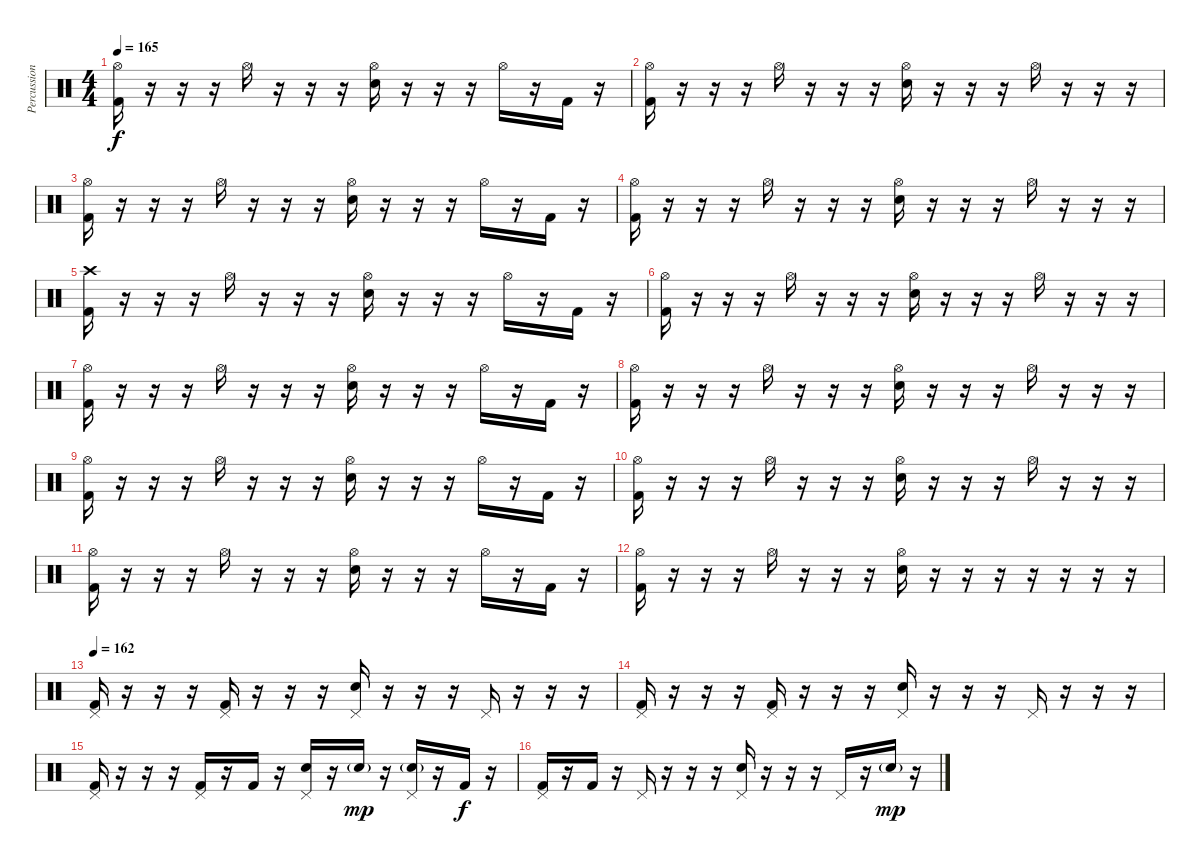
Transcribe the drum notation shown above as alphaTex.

\track ("Percussion" "Percussion") {instrument percussion}
\staff {score}
\articulation defaults
\ts (4 4)
\tempo 165
\clef neutral
\ks c
("Hi-Hat (open)" "Kick (hit) 2").16{dy f} r.16 r.16 r.16 "Hi-Hat (open)".16 r.16 r.16 r.16 ("Hi-Hat (open)" "Snare (hit) 2").16 r.16 r.16 r.16 "Hi-Hat (open)".16 r.16 "Kick (hit) 2".16 r.16 |
("Hi-Hat (open)" "Kick (hit) 2").16 r.16 r.16 r.16 "Hi-Hat (open)".16 r.16 r.16 r.16 ("Hi-Hat (open)" "Snare (hit) 2").16 r.16 r.16 r.16 "Hi-Hat (open)".16 r.16 r.16 r.16 |
("Hi-Hat (open)" "Kick (hit) 2").16 r.16 r.16 r.16 "Hi-Hat (open)".16 r.16 r.16 r.16 ("Hi-Hat (open)" "Snare (hit) 2").16 r.16 r.16 r.16 "Hi-Hat (open)".16 r.16 "Kick (hit) 2".16 r.16 |
("Hi-Hat (open)" "Kick (hit) 2").16 r.16 r.16 r.16 "Hi-Hat (open)".16 r.16 r.16 r.16 ("Hi-Hat (open)" "Snare (hit) 2").16 r.16 r.16 r.16 "Hi-Hat (open)".16 r.16 r.16 r.16 |
("Crash high (hit)" "Kick (hit) 2").16 r.16 r.16 r.16 "Hi-Hat (open)".16 r.16 r.16 r.16 ("Hi-Hat (open)" "Snare (hit) 2").16 r.16 r.16 r.16 "Hi-Hat (open)".16 r.16 "Kick (hit) 2".16 r.16 |
("Hi-Hat (open)" "Kick (hit) 2").16 r.16 r.16 r.16 "Hi-Hat (open)".16 r.16 r.16 r.16 ("Hi-Hat (open)" "Snare (hit) 2").16 r.16 r.16 r.16 "Hi-Hat (open)".16 r.16 r.16 r.16 |
("Hi-Hat (open)" "Kick (hit) 2").16 r.16 r.16 r.16 "Hi-Hat (open)".16 r.16 r.16 r.16 ("Hi-Hat (open)" "Snare (hit) 2").16 r.16 r.16 r.16 "Hi-Hat (open)".16 r.16 "Kick (hit) 2".16 r.16 |
("Hi-Hat (open)" "Kick (hit) 2").16 r.16 r.16 r.16 "Hi-Hat (open)".16 r.16 r.16 r.16 ("Hi-Hat (open)" "Snare (hit) 2").16 r.16 r.16 r.16 "Hi-Hat (open)".16 r.16 r.16 r.16 |
("Hi-Hat (open)" "Kick (hit) 2").16 r.16 r.16 r.16 "Hi-Hat (open)".16 r.16 r.16 r.16 ("Hi-Hat (open)" "Snare (hit) 2").16 r.16 r.16 r.16 "Hi-Hat (open)".16 r.16 "Kick (hit) 2".16 r.16 |
("Hi-Hat (open)" "Kick (hit) 2").16 r.16 r.16 r.16 "Hi-Hat (open)".16 r.16 r.16 r.16 ("Hi-Hat (open)" "Snare (hit) 2").16 r.16 r.16 r.16 "Hi-Hat (open)".16 r.16 r.16 r.16 |
("Hi-Hat (open)" "Kick (hit) 2").16 r.16 r.16 r.16 "Hi-Hat (open)".16 r.16 r.16 r.16 ("Hi-Hat (open)" "Snare (hit) 2").16 r.16 r.16 r.16 "Hi-Hat (open)".16 r.16 "Kick (hit) 2".16 r.16 |
("Hi-Hat (open)" "Kick (hit) 2").16 r.16 r.16 r.16 "Hi-Hat (open)".16 r.16 r.16 r.16 ("Hi-Hat (open)" "Snare (hit) 2").16 r.16 r.16 r.16 r.16 r.16 r.16 r.16 |
\tempo 162
("Pedal Hi-Hat (hit)" "Kick (hit) 2").16 r.16 r.16 r.16 ("Pedal Hi-Hat (hit)" "Kick (hit) 2").16 r.16 r.16 r.16 ("Pedal Hi-Hat (hit)" "Snare (hit) 2").16 r.16 r.16 r.16 "Pedal Hi-Hat (hit)".16 r.16 r.16 r.16 |
("Pedal Hi-Hat (hit)" "Kick (hit) 2").16 r.16 r.16 r.16 ("Pedal Hi-Hat (hit)" "Kick (hit) 2").16 r.16 r.16 r.16 ("Pedal Hi-Hat (hit)" "Snare (hit) 2").16 r.16 r.16 r.16 "Pedal Hi-Hat (hit)".16 r.16 r.16 r.16 |
("Pedal Hi-Hat (hit)" "Kick (hit) 2").16 r.16 r.16 r.16 ("Pedal Hi-Hat (hit)" "Kick (hit) 2").16 r.16 "Kick (hit) 2".16 r.16 ("Pedal Hi-Hat (hit)" "Snare (hit) 2").16 r.16 "Snare (hit) 2"{g}.16{dy mp} r.16 ("Pedal Hi-Hat (hit)" "Snare (hit) 2"{g}).16 r.16 "Kick (hit) 2".16{dy f} r.16 |
("Pedal Hi-Hat (hit)" "Kick (hit) 2").16 r.16 "Kick (hit) 2".16 r.16 "Pedal Hi-Hat (hit)".16 r.16 r.16 r.16 ("Pedal Hi-Hat (hit)" "Snare (hit) 2").16 r.16 r.16 r.16 "Pedal Hi-Hat (hit)".16 r.16 "Snare (hit) 2"{g}.16{dy mp} r.16
